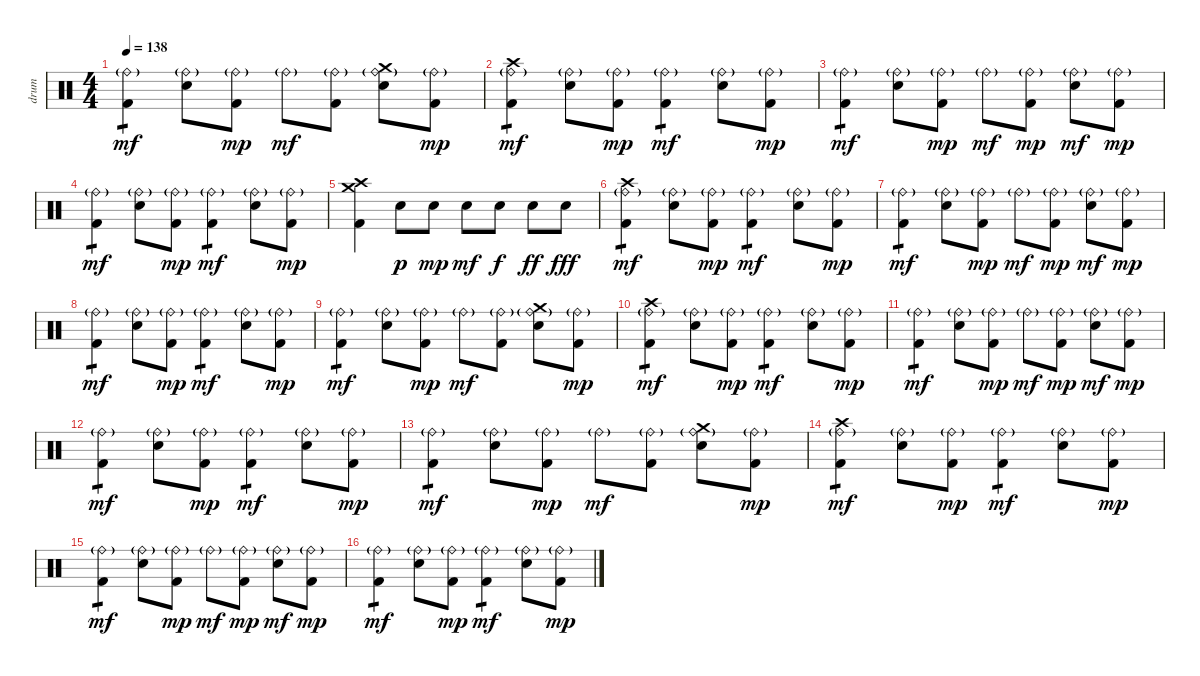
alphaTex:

\track ("drum" "drum") {instrument percussion}
\staff {score}
\articulation defaults
\ts (4 4)
\tempo 138
\clef neutral
\ks c
("Ride (bell)"{g} "Kick (hit) 2").4{tp 1 dy mf} ("Ride (bell)"{g} "Snare (hit) 2").8 ("Ride (bell)"{g} "Kick (hit) 2").8{dy mp} "Ride (bell)"{g}.8{dy mf} ("Ride (bell)"{g} "Kick (hit) 2").8 ("Crash medium (hit)" "Ride (bell)"{g} "Snare (hit) 2").8 ("Ride (bell)"{g} "Kick (hit) 2").8{dy mp} |
("Crash high (hit)" "Ride (bell)"{g} "Kick (hit) 2").4{tp 1 dy mf} ("Ride (bell)"{g} "Snare (hit) 2").8 ("Ride (bell)"{g} "Kick (hit) 2").8{dy mp} ("Ride (bell)"{g} "Kick (hit) 2").4{tp 1 dy mf} ("Ride (bell)"{g} "Snare (hit) 2").8 ("Ride (bell)"{g} "Kick (hit) 2").8{dy mp} |
("Ride (bell)"{g} "Kick (hit) 2").4{tp 1 dy mf} ("Ride (bell)"{g} "Snare (hit) 2").8 ("Ride (bell)"{g} "Kick (hit) 2").8{dy mp} "Ride (bell)"{g}.8{dy mf} ("Ride (bell)"{g} "Kick (hit) 2").8{dy mp} ("Ride (bell)"{g} "Snare (hit) 2").8{dy mf} ("Ride (bell)"{g} "Kick (hit) 2").8{dy mp} |
("Ride (bell)"{g} "Kick (hit) 2").4{tp 1 dy mf} ("Ride (bell)"{g} "Snare (hit) 2").8 ("Ride (bell)"{g} "Kick (hit) 2").8{dy mp} ("Ride (bell)"{g} "Kick (hit) 2").4{tp 1 dy mf} ("Ride (bell)"{g} "Snare (hit) 2").8 ("Ride (bell)"{g} "Kick (hit) 2").8{dy mp} |
("Crash high (hit)" "Crash medium (hit)" "Kick (hit) 2").4 "Snare (hit) 2".8{dy p} "Snare (hit) 2".8{dy mp} "Snare (hit) 2".8{dy mf} "Snare (hit) 2".8{dy f} "Snare (hit) 2".8{dy ff} "Snare (hit) 2".8{dy fff} |
("Crash high (hit)" "Ride (bell)"{g} "Kick (hit) 2").4{tp 1 dy mf} ("Ride (bell)"{g} "Snare (hit) 2").8 ("Ride (bell)"{g} "Kick (hit) 2").8{dy mp} ("Ride (bell)"{g} "Kick (hit) 2").4{tp 1 dy mf} ("Ride (bell)"{g} "Snare (hit) 2").8 ("Ride (bell)"{g} "Kick (hit) 2").8{dy mp} |
("Ride (bell)"{g} "Kick (hit) 2").4{tp 1 dy mf} ("Ride (bell)"{g} "Snare (hit) 2").8 ("Ride (bell)"{g} "Kick (hit) 2").8{dy mp} "Ride (bell)"{g}.8{dy mf} ("Ride (bell)"{g} "Kick (hit) 2").8{dy mp} ("Ride (bell)"{g} "Snare (hit) 2").8{dy mf} ("Ride (bell)"{g} "Kick (hit) 2").8{dy mp} |
("Ride (bell)"{g} "Kick (hit) 2").4{tp 1 dy mf} ("Ride (bell)"{g} "Snare (hit) 2").8 ("Ride (bell)"{g} "Kick (hit) 2").8{dy mp} ("Ride (bell)"{g} "Kick (hit) 2").4{tp 1 dy mf} ("Ride (bell)"{g} "Snare (hit) 2").8 ("Ride (bell)"{g} "Kick (hit) 2").8{dy mp} |
("Ride (bell)"{g} "Kick (hit) 2").4{tp 1 dy mf} ("Ride (bell)"{g} "Snare (hit) 2").8 ("Ride (bell)"{g} "Kick (hit) 2").8{dy mp} "Ride (bell)"{g}.8{dy mf} ("Ride (bell)"{g} "Kick (hit) 2").8 ("Crash medium (hit)" "Ride (bell)"{g} "Snare (hit) 2").8 ("Ride (bell)"{g} "Kick (hit) 2").8{dy mp} |
("Crash high (hit)" "Ride (bell)"{g} "Kick (hit) 2").4{tp 1 dy mf} ("Ride (bell)"{g} "Snare (hit) 2").8 ("Ride (bell)"{g} "Kick (hit) 2").8{dy mp} ("Ride (bell)"{g} "Kick (hit) 2").4{tp 1 dy mf} ("Ride (bell)"{g} "Snare (hit) 2").8 ("Ride (bell)"{g} "Kick (hit) 2").8{dy mp} |
("Ride (bell)"{g} "Kick (hit) 2").4{tp 1 dy mf} ("Ride (bell)"{g} "Snare (hit) 2").8 ("Ride (bell)"{g} "Kick (hit) 2").8{dy mp} "Ride (bell)"{g}.8{dy mf} ("Ride (bell)"{g} "Kick (hit) 2").8{dy mp} ("Ride (bell)"{g} "Snare (hit) 2").8{dy mf} ("Ride (bell)"{g} "Kick (hit) 2").8{dy mp} |
("Ride (bell)"{g} "Kick (hit) 2").4{tp 1 dy mf} ("Ride (bell)"{g} "Snare (hit) 2").8 ("Ride (bell)"{g} "Kick (hit) 2").8{dy mp} ("Ride (bell)"{g} "Kick (hit) 2").4{tp 1 dy mf} ("Ride (bell)"{g} "Snare (hit) 2").8 ("Ride (bell)"{g} "Kick (hit) 2").8{dy mp} |
("Ride (bell)"{g} "Kick (hit) 2").4{tp 1 dy mf} ("Ride (bell)"{g} "Snare (hit) 2").8 ("Ride (bell)"{g} "Kick (hit) 2").8{dy mp} "Ride (bell)"{g}.8{dy mf} ("Ride (bell)"{g} "Kick (hit) 2").8 ("Crash medium (hit)" "Ride (bell)"{g} "Snare (hit) 2").8 ("Ride (bell)"{g} "Kick (hit) 2").8{dy mp} |
("Crash high (hit)" "Ride (bell)"{g} "Kick (hit) 2").4{tp 1 dy mf} ("Ride (bell)"{g} "Snare (hit) 2").8 ("Ride (bell)"{g} "Kick (hit) 2").8{dy mp} ("Ride (bell)"{g} "Kick (hit) 2").4{tp 1 dy mf} ("Ride (bell)"{g} "Snare (hit) 2").8 ("Ride (bell)"{g} "Kick (hit) 2").8{dy mp} |
("Ride (bell)"{g} "Kick (hit) 2").4{tp 1 dy mf} ("Ride (bell)"{g} "Snare (hit) 2").8 ("Ride (bell)"{g} "Kick (hit) 2").8{dy mp} "Ride (bell)"{g}.8{dy mf} ("Ride (bell)"{g} "Kick (hit) 2").8{dy mp} ("Ride (bell)"{g} "Snare (hit) 2").8{dy mf} ("Ride (bell)"{g} "Kick (hit) 2").8{dy mp} |
("Ride (bell)"{g} "Kick (hit) 2").4{tp 1 dy mf} ("Ride (bell)"{g} "Snare (hit) 2").8 ("Ride (bell)"{g} "Kick (hit) 2").8{dy mp} ("Ride (bell)"{g} "Kick (hit) 2").4{tp 1 dy mf} ("Ride (bell)"{g} "Snare (hit) 2").8 ("Ride (bell)"{g} "Kick (hit) 2").8{dy mp}
